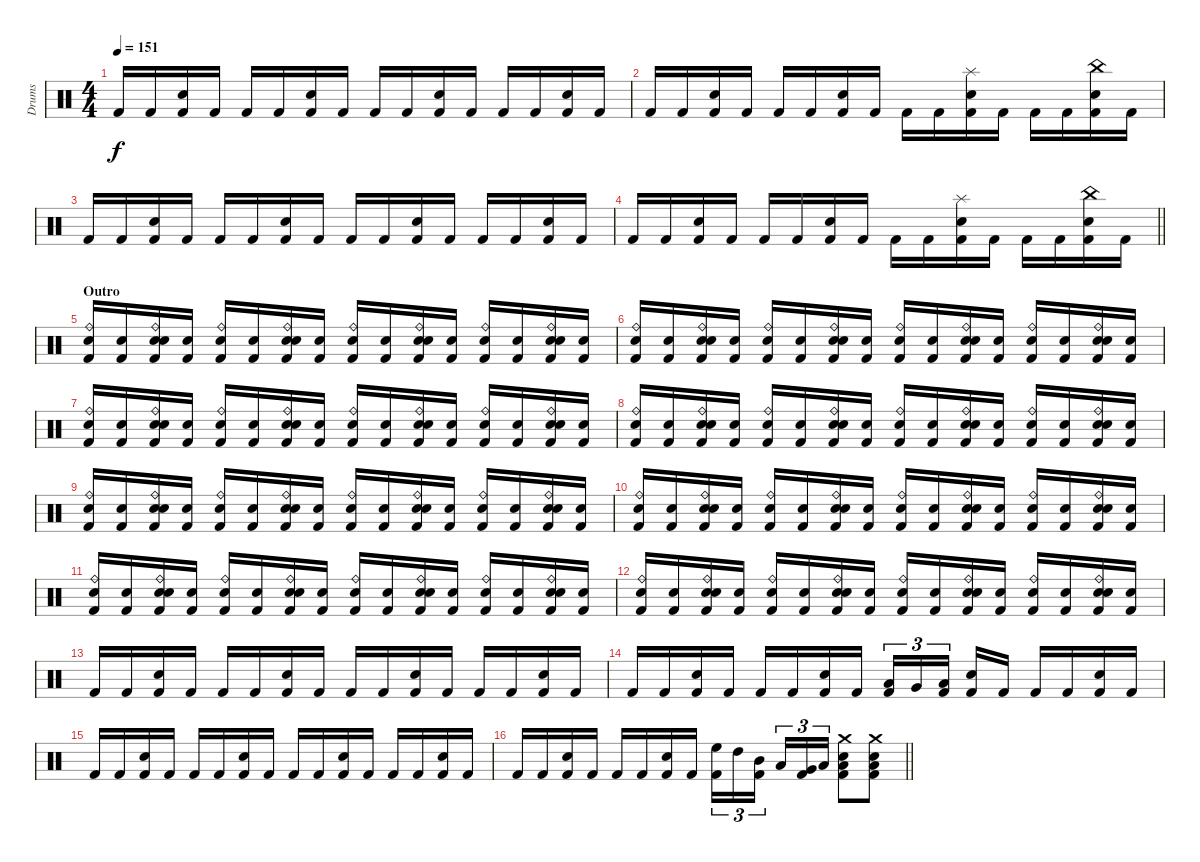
\track ("Drums" "Drums") {instrument percussion}
\staff {score}
\articulation defaults
\ts (4 4)
\tempo 151
\clef neutral
\ks c "Kick (hit) 2".16{dy f} "Kick (hit) 2".16
("Snare (hit) 2" "Kick (hit) 2").16 "Kick (hit) 2".16 "Kick (hit) 2".16 "Kick (hit) 2".16 ("Snare (hit) 2" "Kick (hit) 2").16 "Kick (hit) 2".16 "Kick (hit) 2".16 "Kick (hit) 2".16 ("Snare (hit) 2" "Kick (hit) 2").16 "Kick (hit) 2".16 "Kick (hit) 2".16 "Kick (hit) 2".16 ("Snare (hit) 2" "Kick (hit) 2").16 "Kick (hit) 2".16 |
"Kick (hit) 2".16 "Kick (hit) 2".16 ("Snare (hit) 2" "Kick (hit) 2").16 "Kick (hit) 2".16 "Kick (hit) 2".16 "Kick (hit) 2".16 ("Snare (hit) 2" "Kick (hit) 2").16 "Kick (hit) 2".16 "Kick (hit) 2".16 "Kick (hit) 2".16 ("Splash (hit)" "Snare (hit) 2" "Kick (hit) 2").16 "Kick (hit) 2".16 "Kick (hit) 2".16 "Kick (hit) 2".16 ("China (hit)" "Snare (hit) 2" "Kick (hit) 2").16 "Kick (hit) 2".16 |
"Kick (hit) 2".16 "Kick (hit) 2".16 ("Snare (hit) 2" "Kick (hit) 2").16 "Kick (hit) 2".16 "Kick (hit) 2".16 "Kick (hit) 2".16 ("Snare (hit) 2" "Kick (hit) 2").16 "Kick (hit) 2".16 "Kick (hit) 2".16 "Kick (hit) 2".16 ("Snare (hit) 2" "Kick (hit) 2").16 "Kick (hit) 2".16 "Kick (hit) 2".16 "Kick (hit) 2".16 ("Snare (hit) 2" "Kick (hit) 2").16 "Kick (hit) 2".16 |
\barLineRight lightlight "Kick (hit) 2".16 "Kick (hit) 2".16
("Snare (hit) 2" "Kick (hit) 2").16 "Kick (hit) 2".16 "Kick (hit) 2".16 "Kick (hit) 2".16 ("Snare (hit) 2" "Kick (hit) 2").16 "Kick (hit) 2".16 "Kick (hit) 2".16 "Kick (hit) 2".16 ("Splash (hit)" "Snare (hit) 2" "Kick (hit) 2").16 "Kick (hit) 2".16 "Kick (hit) 2".16 "Kick (hit) 2".16 ("China (hit)" "Snare (hit) 2" "Kick (hit) 2").16 "Kick (hit) 2".16 |
\section ("" "Outro")
("Ride (bell)" "Electric Snare (hit)" "Kick (hit) 2").16 ("Electric Snare (hit)" "Kick (hit) 2").16 ("Ride (bell)" "Electric Snare (hit)" "Snare (hit) 2" "Kick (hit) 2").16 ("Electric Snare (hit)" "Kick (hit) 2").16 ("Ride (bell)" "Electric Snare (hit)" "Kick (hit) 2").16 ("Electric Snare (hit)" "Kick (hit) 2").16 ("Ride (bell)" "Electric Snare (hit)" "Snare (hit) 2" "Kick (hit) 2").16 ("Electric Snare (hit)" "Kick (hit) 2").16 ("Ride (bell)" "Electric Snare (hit)" "Kick (hit) 2").16 ("Electric Snare (hit)" "Kick (hit) 2").16 ("Ride (bell)" "Electric Snare (hit)" "Snare (hit) 2" "Kick (hit) 2").16 ("Electric Snare (hit)" "Kick (hit) 2").16 ("Ride (bell)" "Electric Snare (hit)" "Kick (hit) 2").16 ("Electric Snare (hit)" "Kick (hit) 2").16 ("Ride (bell)" "Electric Snare (hit)" "Snare (hit) 2" "Kick (hit) 2").16 ("Electric Snare (hit)" "Kick (hit) 2").16 |
("Ride (bell)" "Electric Snare (hit)" "Kick (hit) 2").16 ("Electric Snare (hit)" "Kick (hit) 2").16 ("Ride (bell)" "Electric Snare (hit)" "Snare (hit) 2" "Kick (hit) 2").16 ("Electric Snare (hit)" "Kick (hit) 2").16 ("Ride (bell)" "Electric Snare (hit)" "Kick (hit) 2").16 ("Electric Snare (hit)" "Kick (hit) 2").16 ("Ride (bell)" "Electric Snare (hit)" "Snare (hit) 2" "Kick (hit) 2").16 ("Electric Snare (hit)" "Kick (hit) 2").16 ("Ride (bell)" "Electric Snare (hit)" "Kick (hit) 2").16 ("Electric Snare (hit)" "Kick (hit) 2").16 ("Ride (bell)" "Electric Snare (hit)" "Snare (hit) 2" "Kick (hit) 2").16 ("Electric Snare (hit)" "Kick (hit) 2").16 ("Ride (bell)" "Electric Snare (hit)" "Kick (hit) 2").16 ("Electric Snare (hit)" "Kick (hit) 2").16 ("Ride (bell)" "Electric Snare (hit)" "Snare (hit) 2" "Kick (hit) 2").16 ("Electric Snare (hit)" "Kick (hit) 2").16 |
("Ride (bell)" "Electric Snare (hit)" "Kick (hit) 2").16 ("Electric Snare (hit)" "Kick (hit) 2").16 ("Ride (bell)" "Electric Snare (hit)" "Snare (hit) 2" "Kick (hit) 2").16 ("Electric Snare (hit)" "Kick (hit) 2").16 ("Ride (bell)" "Electric Snare (hit)" "Kick (hit) 2").16 ("Electric Snare (hit)" "Kick (hit) 2").16 ("Ride (bell)" "Electric Snare (hit)" "Snare (hit) 2" "Kick (hit) 2").16 ("Electric Snare (hit)" "Kick (hit) 2").16 ("Ride (bell)" "Electric Snare (hit)" "Kick (hit) 2").16 ("Electric Snare (hit)" "Kick (hit) 2").16 ("Ride (bell)" "Electric Snare (hit)" "Snare (hit) 2" "Kick (hit) 2").16 ("Electric Snare (hit)" "Kick (hit) 2").16 ("Ride (bell)" "Electric Snare (hit)" "Kick (hit) 2").16 ("Electric Snare (hit)" "Kick (hit) 2").16 ("Ride (bell)" "Electric Snare (hit)" "Snare (hit) 2" "Kick (hit) 2").16 ("Electric Snare (hit)" "Kick (hit) 2").16 |
("Ride (bell)" "Electric Snare (hit)" "Kick (hit) 2").16 ("Electric Snare (hit)" "Kick (hit) 2").16 ("Ride (bell)" "Electric Snare (hit)" "Snare (hit) 2" "Kick (hit) 2").16 ("Electric Snare (hit)" "Kick (hit) 2").16 ("Ride (bell)" "Electric Snare (hit)" "Kick (hit) 2").16 ("Electric Snare (hit)" "Kick (hit) 2").16 ("Ride (bell)" "Electric Snare (hit)" "Snare (hit) 2" "Kick (hit) 2").16 ("Electric Snare (hit)" "Kick (hit) 2").16 ("Ride (bell)" "Electric Snare (hit)" "Kick (hit) 2").16 ("Electric Snare (hit)" "Kick (hit) 2").16 ("Ride (bell)" "Electric Snare (hit)" "Snare (hit) 2" "Kick (hit) 2").16 ("Electric Snare (hit)" "Kick (hit) 2").16 ("Ride (bell)" "Electric Snare (hit)" "Kick (hit) 2").16 ("Electric Snare (hit)" "Kick (hit) 2").16 ("Ride (bell)" "Electric Snare (hit)" "Snare (hit) 2" "Kick (hit) 2").16 ("Electric Snare (hit)" "Kick (hit) 2").16 |
("Ride (bell)" "Electric Snare (hit)" "Kick (hit) 2").16 ("Electric Snare (hit)" "Kick (hit) 2").16 ("Ride (bell)" "Electric Snare (hit)" "Snare (hit) 2" "Kick (hit) 2").16 ("Electric Snare (hit)" "Kick (hit) 2").16 ("Ride (bell)" "Electric Snare (hit)" "Kick (hit) 2").16 ("Electric Snare (hit)" "Kick (hit) 2").16 ("Ride (bell)" "Electric Snare (hit)" "Snare (hit) 2" "Kick (hit) 2").16 ("Electric Snare (hit)" "Kick (hit) 2").16 ("Ride (bell)" "Electric Snare (hit)" "Kick (hit) 2").16 ("Electric Snare (hit)" "Kick (hit) 2").16 ("Ride (bell)" "Electric Snare (hit)" "Snare (hit) 2" "Kick (hit) 2").16 ("Electric Snare (hit)" "Kick (hit) 2").16 ("Ride (bell)" "Electric Snare (hit)" "Kick (hit) 2").16 ("Electric Snare (hit)" "Kick (hit) 2").16 ("Ride (bell)" "Electric Snare (hit)" "Snare (hit) 2" "Kick (hit) 2").16 ("Electric Snare (hit)" "Kick (hit) 2").16 |
("Ride (bell)" "Electric Snare (hit)" "Kick (hit) 2").16 ("Electric Snare (hit)" "Kick (hit) 2").16 ("Ride (bell)" "Electric Snare (hit)" "Snare (hit) 2" "Kick (hit) 2").16 ("Electric Snare (hit)" "Kick (hit) 2").16 ("Ride (bell)" "Electric Snare (hit)" "Kick (hit) 2").16 ("Electric Snare (hit)" "Kick (hit) 2").16 ("Ride (bell)" "Electric Snare (hit)" "Snare (hit) 2" "Kick (hit) 2").16 ("Electric Snare (hit)" "Kick (hit) 2").16 ("Ride (bell)" "Electric Snare (hit)" "Kick (hit) 2").16 ("Electric Snare (hit)" "Kick (hit) 2").16 ("Ride (bell)" "Electric Snare (hit)" "Snare (hit) 2" "Kick (hit) 2").16 ("Electric Snare (hit)" "Kick (hit) 2").16 ("Ride (bell)" "Electric Snare (hit)" "Kick (hit) 2").16 ("Electric Snare (hit)" "Kick (hit) 2").16 ("Ride (bell)" "Electric Snare (hit)" "Snare (hit) 2" "Kick (hit) 2").16 ("Electric Snare (hit)" "Kick (hit) 2").16 |
("Ride (bell)" "Electric Snare (hit)" "Kick (hit) 2").16 ("Electric Snare (hit)" "Kick (hit) 2").16 ("Ride (bell)" "Electric Snare (hit)" "Snare (hit) 2" "Kick (hit) 2").16 ("Electric Snare (hit)" "Kick (hit) 2").16 ("Ride (bell)" "Electric Snare (hit)" "Kick (hit) 2").16 ("Electric Snare (hit)" "Kick (hit) 2").16 ("Ride (bell)" "Electric Snare (hit)" "Snare (hit) 2" "Kick (hit) 2").16 ("Electric Snare (hit)" "Kick (hit) 2").16 ("Ride (bell)" "Electric Snare (hit)" "Kick (hit) 2").16 ("Electric Snare (hit)" "Kick (hit) 2").16 ("Ride (bell)" "Electric Snare (hit)" "Snare (hit) 2" "Kick (hit) 2").16 ("Electric Snare (hit)" "Kick (hit) 2").16 ("Ride (bell)" "Electric Snare (hit)" "Kick (hit) 2").16 ("Electric Snare (hit)" "Kick (hit) 2").16 ("Ride (bell)" "Electric Snare (hit)" "Snare (hit) 2" "Kick (hit) 2").16 ("Electric Snare (hit)" "Kick (hit) 2").16 |
("Ride (bell)" "Electric Snare (hit)" "Kick (hit) 2").16 ("Electric Snare (hit)" "Kick (hit) 2").16 ("Ride (bell)" "Electric Snare (hit)" "Snare (hit) 2" "Kick (hit) 2").16 ("Electric Snare (hit)" "Kick (hit) 2").16 ("Ride (bell)" "Electric Snare (hit)" "Kick (hit) 2").16 ("Electric Snare (hit)" "Kick (hit) 2").16 ("Ride (bell)" "Electric Snare (hit)" "Snare (hit) 2" "Kick (hit) 2").16 ("Electric Snare (hit)" "Kick (hit) 2").16 ("Ride (bell)" "Electric Snare (hit)" "Kick (hit) 2").16 ("Electric Snare (hit)" "Kick (hit) 2").16 ("Ride (bell)" "Electric Snare (hit)" "Snare (hit) 2" "Kick (hit) 2").16 ("Electric Snare (hit)" "Kick (hit) 2").16 ("Ride (bell)" "Electric Snare (hit)" "Kick (hit) 2").16 ("Electric Snare (hit)" "Kick (hit) 2").16 ("Ride (bell)" "Electric Snare (hit)" "Snare (hit) 2" "Kick (hit) 2").16 ("Electric Snare (hit)" "Kick (hit) 2").16 |
"Kick (hit) 2".16 "Kick (hit) 2".16 ("Snare (hit) 2" "Kick (hit) 2").16 "Kick (hit) 2".16 "Kick (hit) 2".16 "Kick (hit) 2".16 ("Snare (hit) 2" "Kick (hit) 2").16 "Kick (hit) 2".16 "Kick (hit) 2".16 "Kick (hit) 2".16 ("Snare (hit) 2" "Kick (hit) 2").16 "Kick (hit) 2".16 "Kick (hit) 2".16 "Kick (hit) 2".16 ("Snare (hit) 2" "Kick (hit) 2").16 "Kick (hit) 2".16 |
"Kick (hit) 2".16 "Kick (hit) 2".16 ("Snare (hit) 2" "Kick (hit) 2").16 "Kick (hit) 2".16 "Kick (hit) 2".16 "Kick (hit) 2".16 ("Snare (hit) 2" "Kick (hit) 2").16 "Kick (hit) 2".16 ("Low Tom (hit)" "Kick (hit) 2").16{tu (3 2)} "Very Low Tom (hit)".16{tu (3 2)} ("Low Floor Tom (hit)" "Kick (hit) 2").16{tu (3 2) beam splitsecondary} ("Snare (hit) 2" "Kick (hit) 2").16 "Kick (hit) 2".16 "Kick (hit) 2".16 "Kick (hit) 2".16 ("Snare (hit) 2" "Kick (hit) 2").16 "Kick (hit) 2".16 |
"Kick (hit) 2".16 "Kick (hit) 2".16 ("Snare (hit) 2" "Kick (hit) 2").16 "Kick (hit) 2".16 "Kick (hit) 2".16 "Kick (hit) 2".16 ("Snare (hit) 2" "Kick (hit) 2").16 "Kick (hit) 2".16 "Kick (hit) 2".16 "Kick (hit) 2".16 ("Snare (hit) 2" "Kick (hit) 2").16 "Kick (hit) 2".16 "Kick (hit) 2".16 "Kick (hit) 2".16 ("Snare (hit) 2" "Kick (hit) 2").16 "Kick (hit) 2".16 |
\barLineRight lightlight "Kick (hit) 2".16 "Kick (hit) 2".16
("Snare (hit) 2" "Kick (hit) 2").16 "Kick (hit) 2".16 "Kick (hit) 2".16 "Kick (hit) 2".16 ("Snare (hit) 2" "Kick (hit) 2").16 "Kick (hit) 2".16 ("High Floor Tom (hit)" "Kick (hit) 2").16{tu (3 2)} "High Tom (hit)".16{tu (3 2)} ("Mid Tom (hit)" "Kick (hit) 2").16{tu (3 2) beam splitsecondary} "Low Tom (hit)".16{tu (3 2)} ("Very Low Tom (hit)" "Kick (hit) 2").16{tu (3 2)} "Low Floor Tom (hit)".16{tu (3 2)} ("Crash medium (hit)" "Low Floor Tom (hit)" "Snare (hit) 2" "Kick (hit) 2").8 ("Crash medium (hit)" "Low Floor Tom (hit)" "Snare (hit) 2" "Kick (hit) 2").8
